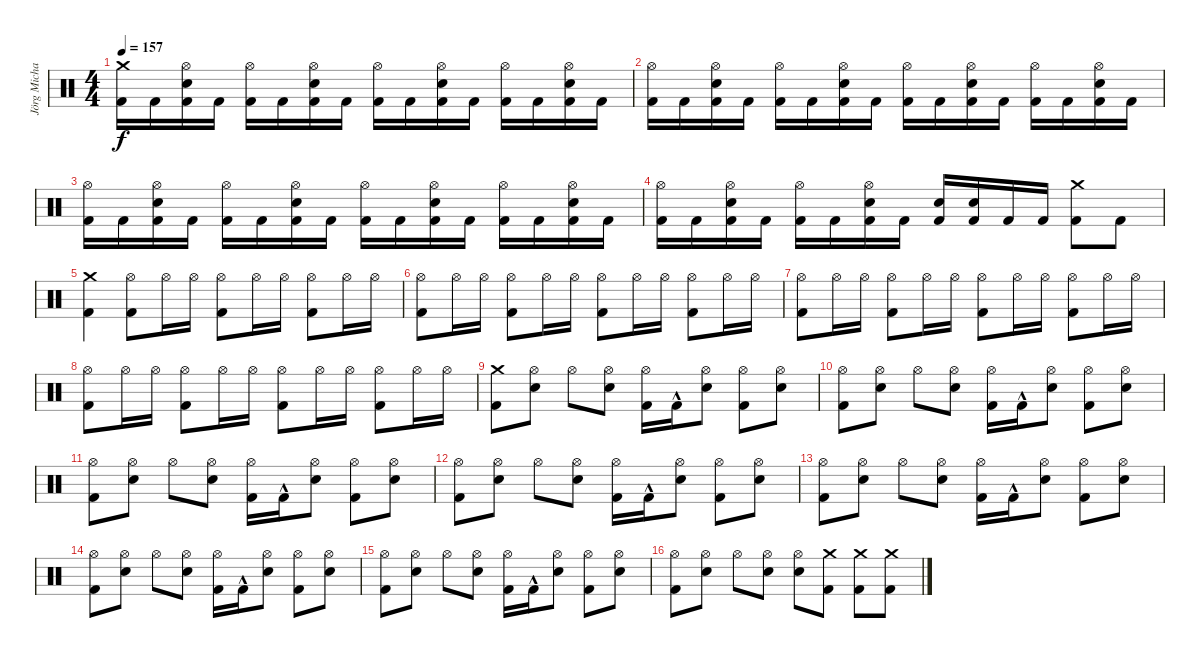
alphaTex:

\track ("Jörg Michael" "Jörg Micha") {instrument percussion}
\staff {score}
\articulation defaults
\ts (4 4)
\tempo 157
\clef neutral
\ks c
("Crash medium (hit)" "Kick (hit) 2").16{dy f} "Kick (hit) 2".16 ("Kick (hit) 2" "Snare (hit) 2" "Hi-Hat (open)").16 "Kick (hit) 2".16 ("Kick (hit) 2" "Hi-Hat (open)").16 "Kick (hit) 2".16 ("Kick (hit) 2" "Snare (hit) 2" "Hi-Hat (open)").16 "Kick (hit) 2".16 ("Kick (hit) 2" "Hi-Hat (open)").16 "Kick (hit) 2".16 ("Kick (hit) 2" "Snare (hit) 2" "Hi-Hat (open)").16 "Kick (hit) 2".16 ("Kick (hit) 2" "Hi-Hat (open)").16 "Kick (hit) 2".16 ("Kick (hit) 2" "Snare (hit) 2" "Hi-Hat (open)").16 "Kick (hit) 2".16 |
("Hi-Hat (open)" "Kick (hit) 2").16 "Kick (hit) 2".16 ("Kick (hit) 2" "Snare (hit) 2" "Hi-Hat (open)").16 "Kick (hit) 2".16 ("Kick (hit) 2" "Hi-Hat (open)").16 "Kick (hit) 2".16 ("Kick (hit) 2" "Snare (hit) 2" "Hi-Hat (open)").16 "Kick (hit) 2".16 ("Kick (hit) 2" "Hi-Hat (open)").16 "Kick (hit) 2".16 ("Kick (hit) 2" "Snare (hit) 2" "Hi-Hat (open)").16 "Kick (hit) 2".16 ("Kick (hit) 2" "Hi-Hat (open)").16 "Kick (hit) 2".16 ("Kick (hit) 2" "Snare (hit) 2" "Hi-Hat (open)").16 "Kick (hit) 2".16 |
("Hi-Hat (open)" "Kick (hit) 2").16 "Kick (hit) 2".16 ("Kick (hit) 2" "Snare (hit) 2" "Hi-Hat (open)").16 "Kick (hit) 2".16 ("Kick (hit) 2" "Hi-Hat (open)").16 "Kick (hit) 2".16 ("Kick (hit) 2" "Snare (hit) 2" "Hi-Hat (open)").16 "Kick (hit) 2".16 ("Kick (hit) 2" "Hi-Hat (open)").16 "Kick (hit) 2".16 ("Kick (hit) 2" "Snare (hit) 2" "Hi-Hat (open)").16 "Kick (hit) 2".16 ("Kick (hit) 2" "Hi-Hat (open)").16 "Kick (hit) 2".16 ("Kick (hit) 2" "Snare (hit) 2" "Hi-Hat (open)").16 "Kick (hit) 2".16 |
("Hi-Hat (open)" "Kick (hit) 2").16 "Kick (hit) 2".16 ("Kick (hit) 2" "Snare (hit) 2" "Hi-Hat (open)").16 "Kick (hit) 2".16 ("Kick (hit) 2" "Hi-Hat (open)").16 "Kick (hit) 2".16 ("Kick (hit) 2" "Snare (hit) 2" "Hi-Hat (open)").16 "Kick (hit) 2".16 ("Snare (hit) 2" "Kick (hit) 2").16 ("Snare (hit) 2" "Kick (hit) 2").16 "Kick (hit) 2".16 "Kick (hit) 2".16 ("Crash medium (hit)" "Kick (hit) 2").8 "Kick (hit) 2".8 |
("Crash medium (hit)" "Kick (hit) 2").4 ("Hi-Hat (open)" "Kick (hit) 2").8 "Hi-Hat (open)".16 "Hi-Hat (open)".16 ("Hi-Hat (open)" "Kick (hit) 2").8 "Hi-Hat (open)".16 "Hi-Hat (open)".16 ("Hi-Hat (open)" "Kick (hit) 2").8 "Hi-Hat (open)".16 "Hi-Hat (open)".16 |
("Hi-Hat (open)" "Kick (hit) 2").8 "Hi-Hat (open)".16 "Hi-Hat (open)".16 ("Hi-Hat (open)" "Kick (hit) 2").8 "Hi-Hat (open)".16 "Hi-Hat (open)".16 ("Hi-Hat (open)" "Kick (hit) 2").8 "Hi-Hat (open)".16 "Hi-Hat (open)".16 ("Hi-Hat (open)" "Kick (hit) 2").8 "Hi-Hat (open)".16 "Hi-Hat (open)".16 |
("Hi-Hat (open)" "Kick (hit) 2").8 "Hi-Hat (open)".16 "Hi-Hat (open)".16 ("Hi-Hat (open)" "Kick (hit) 2").8 "Hi-Hat (open)".16 "Hi-Hat (open)".16 ("Hi-Hat (open)" "Kick (hit) 2").8 "Hi-Hat (open)".16 "Hi-Hat (open)".16 ("Hi-Hat (open)" "Kick (hit) 2").8 "Hi-Hat (open)".16 "Hi-Hat (open)".16 |
("Hi-Hat (open)" "Kick (hit) 2").8 "Hi-Hat (open)".16 "Hi-Hat (open)".16 ("Hi-Hat (open)" "Kick (hit) 2").8 "Hi-Hat (open)".16 "Hi-Hat (open)".16 ("Hi-Hat (open)" "Kick (hit) 2").8 "Hi-Hat (open)".16 "Hi-Hat (open)".16 ("Hi-Hat (open)" "Kick (hit) 2").8 "Hi-Hat (open)".16 "Hi-Hat (open)".16 |
("Kick (hit) 2" "Crash medium (hit)").8 ("Snare (hit) 2" "Hi-Hat (open)").8 "Hi-Hat (open)".8 ("Snare (hit) 2" "Hi-Hat (open)").8 ("Kick (hit) 2" "Hi-Hat (open)").16 "Kick (hit) 2"{hac}.16 ("Snare (hit) 2" "Hi-Hat (open)").8 ("Kick (hit) 2" "Hi-Hat (open)").8 ("Snare (hit) 2" "Hi-Hat (open)").8 |
("Hi-Hat (open)" "Kick (hit) 2").8 ("Snare (hit) 2" "Hi-Hat (open)").8 "Hi-Hat (open)".8 ("Snare (hit) 2" "Hi-Hat (open)").8 ("Kick (hit) 2" "Hi-Hat (open)").16 "Kick (hit) 2"{hac}.16 ("Snare (hit) 2" "Hi-Hat (open)").8 ("Kick (hit) 2" "Hi-Hat (open)").8 ("Snare (hit) 2" "Hi-Hat (open)").8 |
("Hi-Hat (open)" "Kick (hit) 2").8 ("Snare (hit) 2" "Hi-Hat (open)").8 "Hi-Hat (open)".8 ("Snare (hit) 2" "Hi-Hat (open)").8 ("Kick (hit) 2" "Hi-Hat (open)").16 "Kick (hit) 2"{hac}.16 ("Snare (hit) 2" "Hi-Hat (open)").8 ("Kick (hit) 2" "Hi-Hat (open)").8 ("Snare (hit) 2" "Hi-Hat (open)").8 |
("Hi-Hat (open)" "Kick (hit) 2").8 ("Snare (hit) 2" "Hi-Hat (open)").8 "Hi-Hat (open)".8 ("Snare (hit) 2" "Hi-Hat (open)").8 ("Kick (hit) 2" "Hi-Hat (open)").16 "Kick (hit) 2"{hac}.16 ("Snare (hit) 2" "Hi-Hat (open)").8 ("Kick (hit) 2" "Hi-Hat (open)").8 ("Snare (hit) 2" "Hi-Hat (open)").8 |
("Hi-Hat (open)" "Kick (hit) 2").8 ("Snare (hit) 2" "Hi-Hat (open)").8 "Hi-Hat (open)".8 ("Snare (hit) 2" "Hi-Hat (open)").8 ("Kick (hit) 2" "Hi-Hat (open)").16 "Kick (hit) 2"{hac}.16 ("Snare (hit) 2" "Hi-Hat (open)").8 ("Kick (hit) 2" "Hi-Hat (open)").8 ("Snare (hit) 2" "Hi-Hat (open)").8 |
("Hi-Hat (open)" "Kick (hit) 2").8 ("Snare (hit) 2" "Hi-Hat (open)").8 "Hi-Hat (open)".8 ("Snare (hit) 2" "Hi-Hat (open)").8 ("Kick (hit) 2" "Hi-Hat (open)").16 "Kick (hit) 2"{hac}.16 ("Snare (hit) 2" "Hi-Hat (open)").8 ("Kick (hit) 2" "Hi-Hat (open)").8 ("Snare (hit) 2" "Hi-Hat (open)").8 |
("Hi-Hat (open)" "Kick (hit) 2").8 ("Snare (hit) 2" "Hi-Hat (open)").8 "Hi-Hat (open)".8 ("Snare (hit) 2" "Hi-Hat (open)").8 ("Kick (hit) 2" "Hi-Hat (open)").16 "Kick (hit) 2"{hac}.16 ("Snare (hit) 2" "Hi-Hat (open)").8 ("Kick (hit) 2" "Hi-Hat (open)").8 ("Snare (hit) 2" "Hi-Hat (open)").8 |
("Hi-Hat (open)" "Kick (hit) 2").8 ("Snare (hit) 2" "Hi-Hat (open)").8 "Hi-Hat (open)".8 ("Snare (hit) 2" "Hi-Hat (open)").8 ("Snare (hit) 2" "Hi-Hat (open)").8 ("Kick (hit) 2" "Crash medium (hit)").8 ("Crash medium (hit)" "Kick (hit) 2").8 ("Kick (hit) 2" "Crash medium (hit)").8
